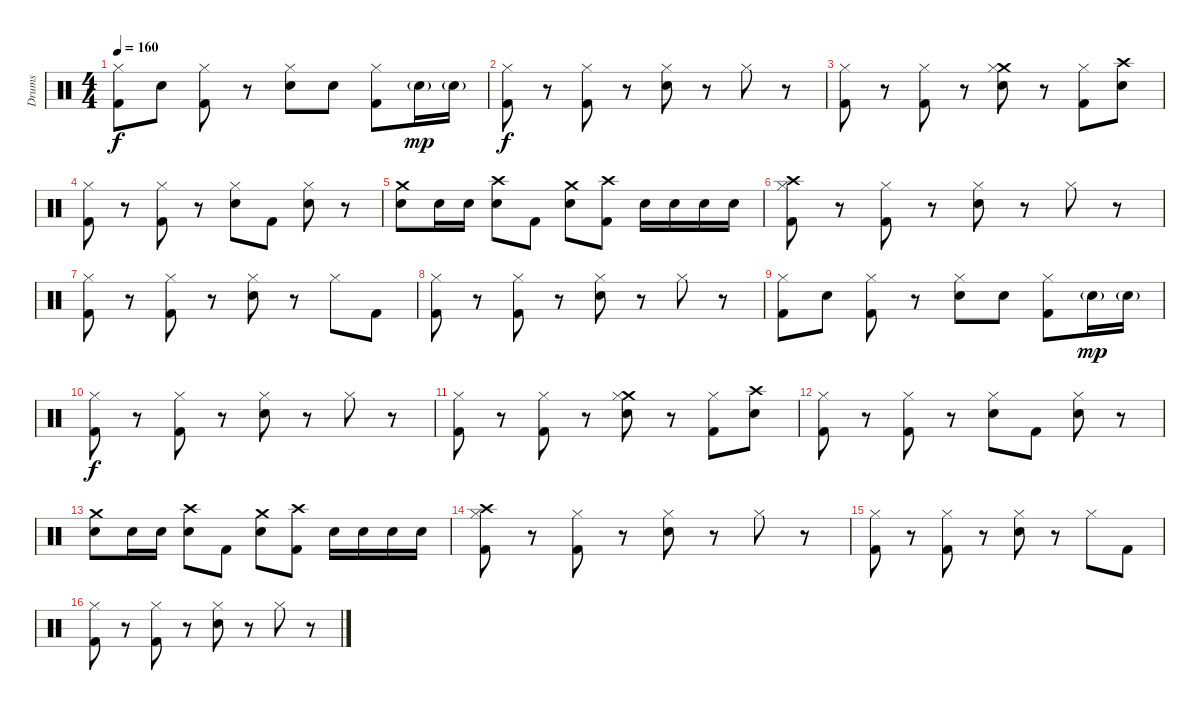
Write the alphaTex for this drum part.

\track ("Drums" "Drums") {instrument percussion}
\staff {score}
\articulation defaults
\ts (4 4)
\tempo 160
\clef neutral
\ks c
("Hi-Hat (closed)" "Kick (hit) 2").8{dy f} "Electric Snare (hit)".8 ("Hi-Hat (closed)" "Kick (hit) 2").8 r.8 ("Hi-Hat (closed)" "Electric Snare (hit)").8 "Electric Snare (hit)".8 ("Hi-Hat (closed)" "Kick (hit) 2").8 "Electric Snare (hit)"{g}.16{dy mp} "Electric Snare (hit)"{g}.16 |
("Hi-Hat (closed)" "Kick (hit) 2").8{dy f} r.8 ("Hi-Hat (closed)" "Kick (hit) 2").8 r.8 ("Hi-Hat (closed)" "Electric Snare (hit)").8 r.8 "Hi-Hat (closed)".8 r.8 |
("Hi-Hat (closed)" "Kick (hit) 2").8 r.8 ("Hi-Hat (closed)" "Kick (hit) 2").8 r.8 ("Crash medium (hit)" "Hi-Hat (closed)" "Electric Snare (hit)").8 r.8 ("Hi-Hat (closed)" "Kick (hit) 2").8 ("Crash high (hit)" "Electric Snare (hit)").8 |
("Hi-Hat (closed)" "Kick (hit) 2").8 r.8 ("Hi-Hat (closed)" "Kick (hit) 2").8 r.8 ("Hi-Hat (closed)" "Electric Snare (hit)").8 "Kick (hit) 2".8 ("Hi-Hat (closed)" "Electric Snare (hit)").8 r.8 |
("Crash medium (hit)" "Electric Snare (hit)").8 "Electric Snare (hit)".16 "Electric Snare (hit)".16 ("Crash high (hit)" "Electric Snare (hit)").8 "Kick (hit) 2".8 ("Crash medium (hit)" "Electric Snare (hit)").8 ("Crash high (hit)" "Kick (hit) 2").8 "Electric Snare (hit)".16 "Electric Snare (hit)".16 "Electric Snare (hit)".16 "Electric Snare (hit)".16 |
("Crash high (hit)" "Hi-Hat (closed)" "Kick (hit) 2").8 r.8 ("Hi-Hat (closed)" "Kick (hit) 2").8 r.8 ("Hi-Hat (closed)" "Electric Snare (hit)").8 r.8 "Hi-Hat (closed)".8 r.8 |
("Hi-Hat (closed)" "Kick (hit) 2").8 r.8 ("Hi-Hat (closed)" "Kick (hit) 2").8 r.8 ("Hi-Hat (closed)" "Electric Snare (hit)").8 r.8 "Hi-Hat (closed)".8 "Kick (hit) 2".8 |
("Hi-Hat (closed)" "Kick (hit) 2").8 r.8 ("Hi-Hat (closed)" "Kick (hit) 2").8 r.8 ("Hi-Hat (closed)" "Electric Snare (hit)").8 r.8 "Hi-Hat (closed)".8 r.8 |
("Hi-Hat (closed)" "Kick (hit) 2").8 "Electric Snare (hit)".8 ("Hi-Hat (closed)" "Kick (hit) 2").8 r.8 ("Hi-Hat (closed)" "Electric Snare (hit)").8 "Electric Snare (hit)".8 ("Hi-Hat (closed)" "Kick (hit) 2").8 "Electric Snare (hit)"{g}.16{dy mp} "Electric Snare (hit)"{g}.16 |
("Hi-Hat (closed)" "Kick (hit) 2").8{dy f} r.8 ("Hi-Hat (closed)" "Kick (hit) 2").8 r.8 ("Hi-Hat (closed)" "Electric Snare (hit)").8 r.8 "Hi-Hat (closed)".8 r.8 |
("Hi-Hat (closed)" "Kick (hit) 2").8 r.8 ("Hi-Hat (closed)" "Kick (hit) 2").8 r.8 ("Crash medium (hit)" "Hi-Hat (closed)" "Electric Snare (hit)").8 r.8 ("Hi-Hat (closed)" "Kick (hit) 2").8 ("Crash high (hit)" "Electric Snare (hit)").8 |
("Hi-Hat (closed)" "Kick (hit) 2").8 r.8 ("Hi-Hat (closed)" "Kick (hit) 2").8 r.8 ("Hi-Hat (closed)" "Electric Snare (hit)").8 "Kick (hit) 2".8 ("Hi-Hat (closed)" "Electric Snare (hit)").8 r.8 |
("Crash medium (hit)" "Electric Snare (hit)").8 "Electric Snare (hit)".16 "Electric Snare (hit)".16 ("Crash high (hit)" "Electric Snare (hit)").8 "Kick (hit) 2".8 ("Crash medium (hit)" "Electric Snare (hit)").8 ("Crash high (hit)" "Kick (hit) 2").8 "Electric Snare (hit)".16 "Electric Snare (hit)".16 "Electric Snare (hit)".16 "Electric Snare (hit)".16 |
("Crash high (hit)" "Hi-Hat (closed)" "Kick (hit) 2").8 r.8 ("Hi-Hat (closed)" "Kick (hit) 2").8 r.8 ("Hi-Hat (closed)" "Electric Snare (hit)").8 r.8 "Hi-Hat (closed)".8 r.8 |
("Hi-Hat (closed)" "Kick (hit) 2").8 r.8 ("Hi-Hat (closed)" "Kick (hit) 2").8 r.8 ("Hi-Hat (closed)" "Electric Snare (hit)").8 r.8 "Hi-Hat (closed)".8 "Kick (hit) 2".8 |
("Hi-Hat (closed)" "Kick (hit) 2").8 r.8 ("Hi-Hat (closed)" "Kick (hit) 2").8 r.8 ("Hi-Hat (closed)" "Electric Snare (hit)").8 r.8 "Hi-Hat (closed)".8 r.8
